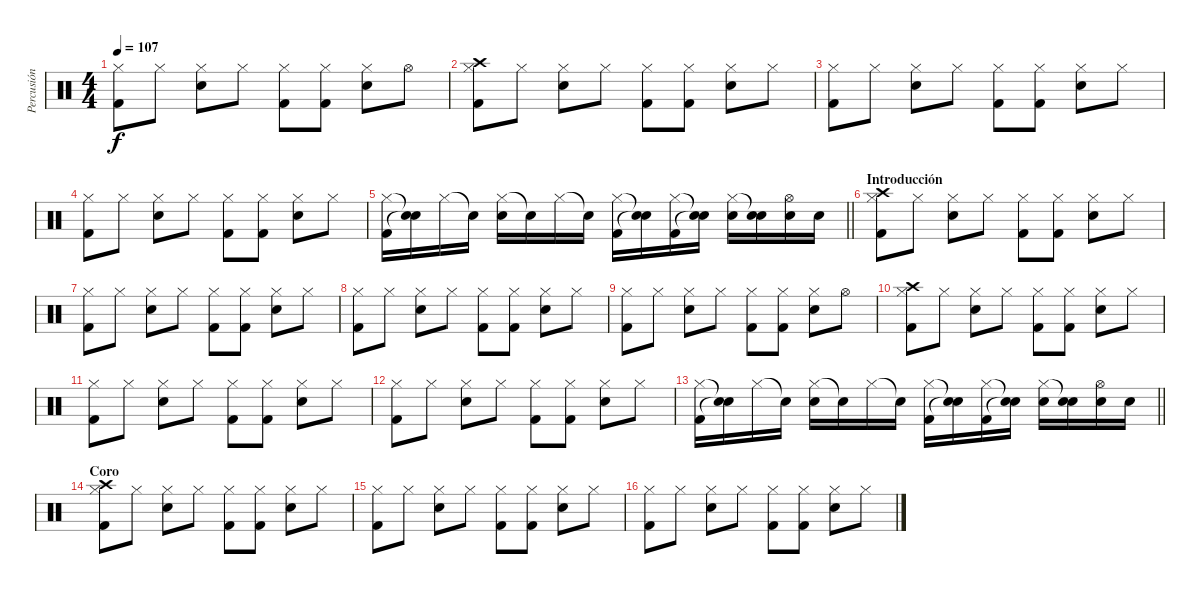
\track ("Percusión" "Percusión") {instrument percussion}
\staff {score}
\articulation defaults
\ts (4 4)
\tempo 107
\clef neutral
\ks c
("Hi-Hat (closed)" "Kick (hit) 2").8{dy f} "Hi-Hat (closed)".8 ("Hi-Hat (closed)" "Snare (hit) 2").8 "Hi-Hat (closed)".8 ("Hi-Hat (closed)" "Kick (hit) 2").8 ("Hi-Hat (closed)" "Kick (hit) 2").8 ("Hi-Hat (closed)" "Snare (hit) 2").8 "Hi-Hat (open)".8 |
("Hi-Hat (closed)" "Kick (hit) 2" "Crash high (hit)").8 "Hi-Hat (closed)".8 ("Hi-Hat (closed)" "Snare (hit) 2").8 "Hi-Hat (closed)".8 ("Hi-Hat (closed)" "Kick (hit) 2").8 ("Hi-Hat (closed)" "Kick (hit) 2").8 ("Hi-Hat (closed)" "Snare (hit) 2").8 "Hi-Hat (closed)".8 |
("Hi-Hat (closed)" "Kick (hit) 2").8 "Hi-Hat (closed)".8 ("Hi-Hat (closed)" "Snare (hit) 2").8 "Hi-Hat (closed)".8 ("Hi-Hat (closed)" "Kick (hit) 2").8 ("Hi-Hat (closed)" "Kick (hit) 2").8 ("Hi-Hat (closed)" "Snare (hit) 2").8 "Hi-Hat (closed)".8 |
("Hi-Hat (closed)" "Kick (hit) 2").8 "Hi-Hat (closed)".8 ("Hi-Hat (closed)" "Snare (hit) 2").8 "Hi-Hat (closed)".8 ("Hi-Hat (closed)" "Kick (hit) 2").8 ("Hi-Hat (closed)" "Kick (hit) 2").8 ("Hi-Hat (closed)" "Snare (hit) 2").8 "Hi-Hat (closed)".8 |
\barLineRight lightlight
("Hi-Hat (closed)" "Kick (hit) 2").16 ("Snare (hit)"{t} "Snare (hit)"{t}).16 "Hi-Hat (closed)".16 "Snare (hit)"{t}.16 ("Hi-Hat (closed)" "Snare (hit) 2").16 "Snare (hit)"{t}.16 "Hi-Hat (closed)".16 "Snare (hit)"{t}.16 ("Hi-Hat (closed)" "Kick (hit) 2").16 ("Snare (hit)"{t} "Snare (hit)"{t}).16 ("Hi-Hat (closed)" "Kick (hit) 2").16 ("Snare (hit)"{t} "Snare (hit)"{t}).16 ("Hi-Hat (closed)" "Snare (hit) 2").16 ("Snare (hit)"{t} "Snare (hit) 2").16 ("Hi-Hat (open)" "Snare (hit) 2").16 "Snare (hit) 2".16 |
\section ("" "Introducción")
("Hi-Hat (closed)" "Kick (hit) 2" "Crash high (hit)").8 "Hi-Hat (closed)".8 ("Hi-Hat (closed)" "Snare (hit) 2").8 "Hi-Hat (closed)".8 ("Hi-Hat (closed)" "Kick (hit) 2").8 ("Hi-Hat (closed)" "Kick (hit) 2").8 ("Hi-Hat (closed)" "Snare (hit) 2").8 "Hi-Hat (closed)".8 |
("Hi-Hat (closed)" "Kick (hit) 2").8 "Hi-Hat (closed)".8 ("Hi-Hat (closed)" "Snare (hit) 2").8 "Hi-Hat (closed)".8 ("Hi-Hat (closed)" "Kick (hit) 2").8 ("Hi-Hat (closed)" "Kick (hit) 2").8 ("Hi-Hat (closed)" "Snare (hit) 2").8 "Hi-Hat (closed)".8 |
("Hi-Hat (closed)" "Kick (hit) 2").8 "Hi-Hat (closed)".8 ("Hi-Hat (closed)" "Snare (hit) 2").8 "Hi-Hat (closed)".8 ("Hi-Hat (closed)" "Kick (hit) 2").8 ("Hi-Hat (closed)" "Kick (hit) 2").8 ("Hi-Hat (closed)" "Snare (hit) 2").8 "Hi-Hat (closed)".8 |
("Hi-Hat (closed)" "Kick (hit) 2").8 "Hi-Hat (closed)".8 ("Hi-Hat (closed)" "Snare (hit) 2").8 "Hi-Hat (closed)".8 ("Hi-Hat (closed)" "Kick (hit) 2").8 ("Hi-Hat (closed)" "Kick (hit) 2").8 ("Hi-Hat (closed)" "Snare (hit) 2").8 "Hi-Hat (open)".8 |
("Hi-Hat (closed)" "Kick (hit) 2" "Crash high (hit)").8 "Hi-Hat (closed)".8 ("Hi-Hat (closed)" "Snare (hit) 2").8 "Hi-Hat (closed)".8 ("Hi-Hat (closed)" "Kick (hit) 2").8 ("Hi-Hat (closed)" "Kick (hit) 2").8 ("Hi-Hat (closed)" "Snare (hit) 2").8 "Hi-Hat (closed)".8 |
("Hi-Hat (closed)" "Kick (hit) 2").8 "Hi-Hat (closed)".8 ("Hi-Hat (closed)" "Snare (hit) 2").8 "Hi-Hat (closed)".8 ("Hi-Hat (closed)" "Kick (hit) 2").8 ("Hi-Hat (closed)" "Kick (hit) 2").8 ("Hi-Hat (closed)" "Snare (hit) 2").8 "Hi-Hat (closed)".8 |
("Hi-Hat (closed)" "Kick (hit) 2").8 "Hi-Hat (closed)".8 ("Hi-Hat (closed)" "Snare (hit) 2").8 "Hi-Hat (closed)".8 ("Hi-Hat (closed)" "Kick (hit) 2").8 ("Hi-Hat (closed)" "Kick (hit) 2").8 ("Hi-Hat (closed)" "Snare (hit) 2").8 "Hi-Hat (closed)".8 |
\barLineRight lightlight
("Hi-Hat (closed)" "Kick (hit) 2").16 ("Snare (hit)"{t} "Snare (hit)"{t}).16 "Hi-Hat (closed)".16 "Snare (hit)"{t}.16 ("Hi-Hat (closed)" "Snare (hit) 2").16 "Snare (hit)"{t}.16 "Hi-Hat (closed)".16 "Snare (hit)"{t}.16 ("Hi-Hat (closed)" "Kick (hit) 2").16 ("Snare (hit)"{t} "Snare (hit)"{t}).16 ("Hi-Hat (closed)" "Kick (hit) 2").16 ("Snare (hit)"{t} "Snare (hit)"{t}).16 ("Hi-Hat (closed)" "Snare (hit) 2").16 ("Snare (hit)"{t} "Snare (hit) 2").16 ("Hi-Hat (open)" "Snare (hit) 2").16 "Snare (hit) 2".16 |
\section ("" "Coro")
("Hi-Hat (closed)" "Kick (hit) 2" "Crash high (hit)").8 "Hi-Hat (closed)".8 ("Hi-Hat (closed)" "Snare (hit) 2").8 "Hi-Hat (closed)".8 ("Hi-Hat (closed)" "Kick (hit) 2").8 ("Hi-Hat (closed)" "Kick (hit) 2").8 ("Hi-Hat (closed)" "Snare (hit) 2").8 "Hi-Hat (closed)".8 |
("Hi-Hat (closed)" "Kick (hit) 2").8 "Hi-Hat (closed)".8 ("Hi-Hat (closed)" "Snare (hit) 2").8 "Hi-Hat (closed)".8 ("Hi-Hat (closed)" "Kick (hit) 2").8 ("Hi-Hat (closed)" "Kick (hit) 2").8 ("Hi-Hat (closed)" "Snare (hit) 2").8 "Hi-Hat (closed)".8 |
("Hi-Hat (closed)" "Kick (hit) 2").8 "Hi-Hat (closed)".8 ("Hi-Hat (closed)" "Snare (hit) 2").8 "Hi-Hat (closed)".8 ("Hi-Hat (closed)" "Kick (hit) 2").8 ("Hi-Hat (closed)" "Kick (hit) 2").8 ("Hi-Hat (closed)" "Snare (hit) 2").8 "Hi-Hat (closed)".8
